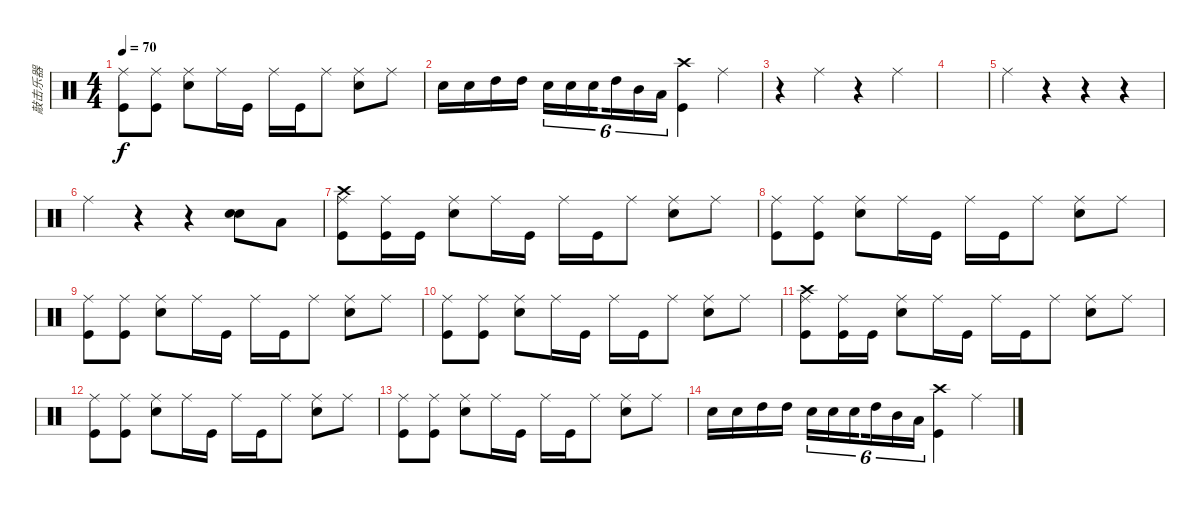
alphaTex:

\track ("敲击乐器" "敲击乐器") {instrument percussion}
\staff {score}
\articulation defaults
\ts (4 4)
\tempo 70
\clef neutral
\ks c
("Ride (middle)" "Kick (hit)").8{dy f} ("Ride (middle)" "Kick (hit)").8 ("Ride (middle)" "Electric Snare (hit)").8 "Ride (middle)".16 "Kick (hit)".16 "Ride (middle)".16 "Kick (hit)".16 "Ride (middle)".8 ("Ride (middle)" "Electric Snare (hit)").8 "Ride (middle)".8 |
"Snare (hit) 2".16 "Snare (hit) 2".16 "High Tom (hit)".16 "High Tom (hit)".16 "Snare (hit) 2".16{tu (6 4)} "Snare (hit) 2".16{tu (6 4)} "Snare (hit) 2".16{tu (6 4) beam splitsecondary} "High Tom (hit)".16{tu (6 4)} "Mid Tom (hit)".16{tu (6 4)} "Low Tom (hit)".16{tu (6 4)} ("Crash high (hit)" "Kick (hit)").4 "Ride (middle)".4 |
r.4 "Ride (middle)".4 r.4 "Ride (middle)".4 |
|
"Ride (middle)".4 r.4 r.4 r.4 |
"Ride (middle)".4 r.4 r.4 ("Snare (hit) 2" "Snare (hit) 2").8 "Low Tom (hit)".8 |
("Ride (middle)" "Crash high (hit)" "Kick (hit)").8 ("Ride (middle)" "Kick (hit)").16 "Kick (hit)".16 ("Ride (middle)" "Electric Snare (hit)").8 "Ride (middle)".16 "Kick (hit)".16 "Ride (middle)".16 "Kick (hit)".16 "Ride (middle)".8 ("Ride (middle)" "Electric Snare (hit)").8 "Ride (middle)".8 |
("Ride (middle)" "Kick (hit)").8 ("Ride (middle)" "Kick (hit)").8 ("Ride (middle)" "Electric Snare (hit)").8 "Ride (middle)".16 "Kick (hit)".16 "Ride (middle)".16 "Kick (hit)".16 "Ride (middle)".8 ("Ride (middle)" "Electric Snare (hit)").8 "Ride (middle)".8 |
("Ride (middle)" "Kick (hit)").8 ("Ride (middle)" "Kick (hit)").8 ("Ride (middle)" "Electric Snare (hit)").8 "Ride (middle)".16 "Kick (hit)".16 "Ride (middle)".16 "Kick (hit)".16 "Ride (middle)".8 ("Ride (middle)" "Electric Snare (hit)").8 "Ride (middle)".8 |
("Ride (middle)" "Kick (hit)").8 ("Ride (middle)" "Kick (hit)").8 ("Ride (middle)" "Electric Snare (hit)").8 "Ride (middle)".16 "Kick (hit)".16 "Ride (middle)".16 "Kick (hit)".16 "Ride (middle)".8 ("Ride (middle)" "Electric Snare (hit)").8 "Ride (middle)".8 |
("Ride (middle)" "Crash high (hit)" "Kick (hit)").8 ("Ride (middle)" "Kick (hit)").16 "Kick (hit)".16 ("Ride (middle)" "Electric Snare (hit)").8 "Ride (middle)".16 "Kick (hit)".16 "Ride (middle)".16 "Kick (hit)".16 "Ride (middle)".8 ("Ride (middle)" "Electric Snare (hit)").8 "Ride (middle)".8 |
("Ride (middle)" "Kick (hit)").8 ("Ride (middle)" "Kick (hit)").8 ("Ride (middle)" "Electric Snare (hit)").8 "Ride (middle)".16 "Kick (hit)".16 "Ride (middle)".16 "Kick (hit)".16 "Ride (middle)".8 ("Ride (middle)" "Electric Snare (hit)").8 "Ride (middle)".8 |
("Ride (middle)" "Kick (hit)").8 ("Ride (middle)" "Kick (hit)").8 ("Ride (middle)" "Electric Snare (hit)").8 "Ride (middle)".16 "Kick (hit)".16 "Ride (middle)".16 "Kick (hit)".16 "Ride (middle)".8 ("Ride (middle)" "Electric Snare (hit)").8 "Ride (middle)".8 |
"Snare (hit) 2".16 "Snare (hit) 2".16 "High Tom (hit)".16 "High Tom (hit)".16 "Snare (hit) 2".16{tu (6 4)} "Snare (hit) 2".16{tu (6 4)} "Snare (hit) 2".16{tu (6 4) beam splitsecondary} "High Tom (hit)".16{tu (6 4)} "Mid Tom (hit)".16{tu (6 4)} "Low Tom (hit)".16{tu (6 4)} ("Crash high (hit)" "Kick (hit)").4 "Ride (middle)".4
